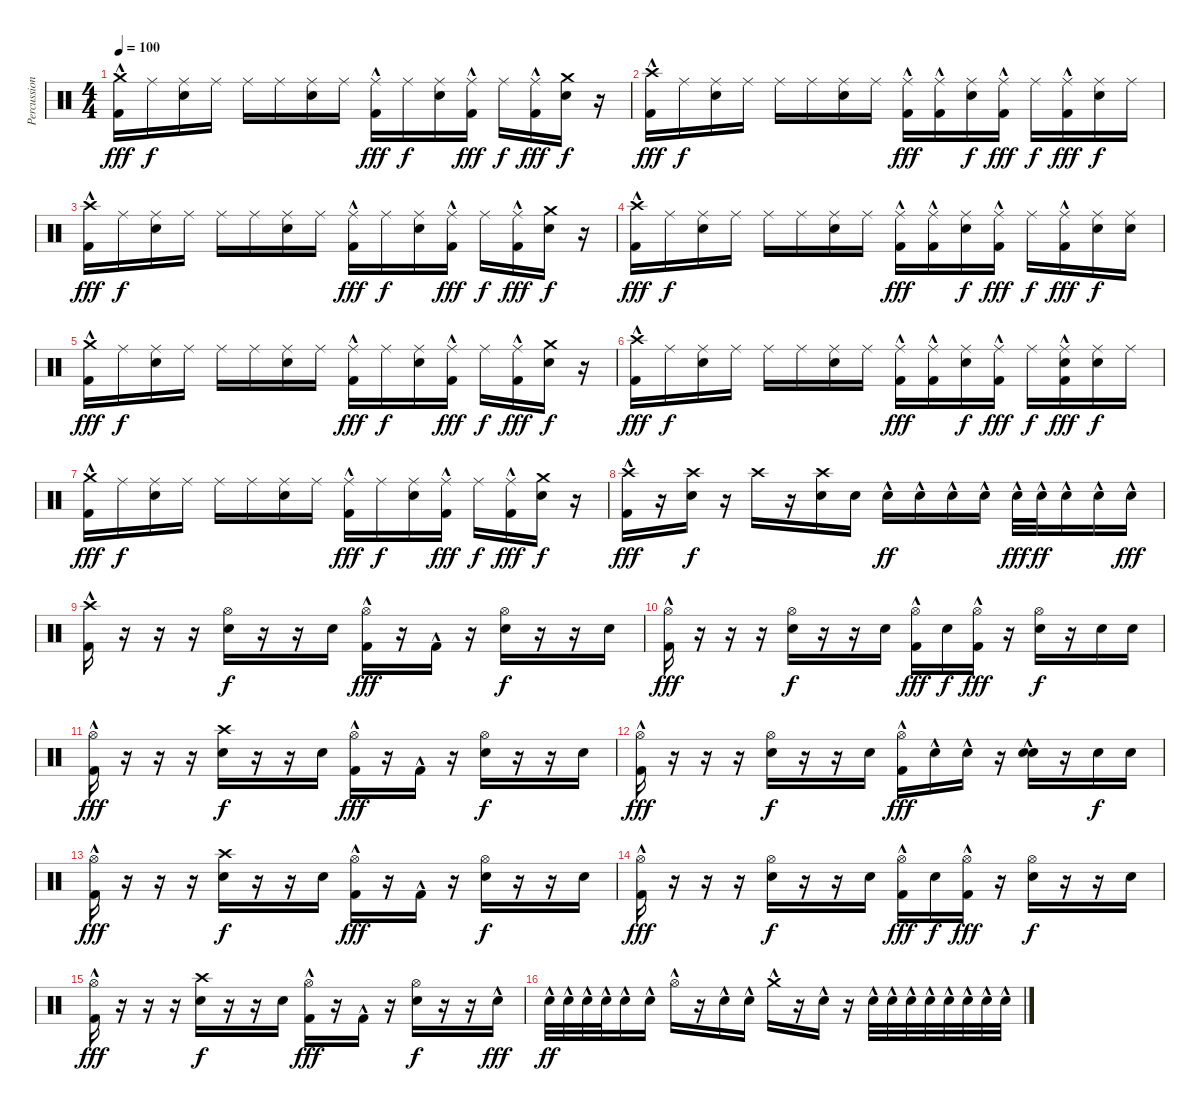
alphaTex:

\track ("Percussion" "Percussion") {instrument percussion}
\staff {score}
\articulation defaults
\ts (4 4)
\tempo 100
\clef neutral
\ks c
("Kick (hit) 2"{hac} "Crash medium (hit)").16{dy fff} "Ride (middle)".16{dy f} ("Electric Snare (hit)" "Ride (middle)").16 "Ride (middle)".16 "Ride (middle)".16 "Ride (middle)".16 ("Electric Snare (hit)" "Ride (middle)").16 "Ride (middle)".16 ("Kick (hit) 2"{hac} "Ride (middle)").16{dy fff} "Ride (middle)".16{dy f} ("Electric Snare (hit)" "Ride (middle)").16 ("Kick (hit) 2"{hac} "Ride (middle)").16{dy fff} "Ride (middle)".16{dy f} ("Kick (hit) 2"{hac} "Ride (middle)").16{dy fff} ("Electric Snare (hit)" "Crash medium (hit)").16{dy f} r.16 |
("Kick (hit) 2"{hac} "Crash high (hit)").16{dy fff} "Ride (middle)".16{dy f} ("Electric Snare (hit)" "Ride (middle)").16 "Ride (middle)".16 "Ride (middle)".16 "Ride (middle)".16 ("Electric Snare (hit)" "Ride (middle)").16 "Ride (middle)".16 ("Kick (hit) 2"{hac} "Ride (middle)").16{dy fff} ("Kick (hit) 2"{hac} "Ride (middle)").16 ("Electric Snare (hit)" "Ride (middle)").16{dy f} ("Kick (hit) 2"{hac} "Ride (middle)").16{dy fff} "Ride (middle)".16{dy f} ("Kick (hit) 2"{hac} "Ride (middle)").16{dy fff} ("Electric Snare (hit)" "Ride (middle)").16{dy f} "Ride (middle)".16 |
("Kick (hit) 2"{hac} "Crash high (hit)").16{dy fff} "Ride (middle)".16{dy f} ("Electric Snare (hit)" "Ride (middle)").16 "Ride (middle)".16 "Ride (middle)".16 "Ride (middle)".16 ("Electric Snare (hit)" "Ride (middle)").16 "Ride (middle)".16 ("Kick (hit) 2"{hac} "Ride (middle)").16{dy fff} "Ride (middle)".16{dy f} ("Electric Snare (hit)" "Ride (middle)").16 ("Kick (hit) 2"{hac} "Ride (middle)").16{dy fff} "Ride (middle)".16{dy f} ("Kick (hit) 2"{hac} "Ride (middle)").16{dy fff} ("Electric Snare (hit)" "Crash medium (hit)").16{dy f} r.16 |
("Kick (hit) 2"{hac} "Crash high (hit)").16{dy fff} "Ride (middle)".16{dy f} ("Electric Snare (hit)" "Ride (middle)").16 "Ride (middle)".16 "Ride (middle)".16 "Ride (middle)".16 ("Electric Snare (hit)" "Ride (middle)").16 "Ride (middle)".16 ("Kick (hit) 2"{hac} "Ride (middle)").16{dy fff} ("Kick (hit) 2"{hac} "Ride (middle)").16 ("Electric Snare (hit)" "Ride (middle)").16{dy f} ("Kick (hit) 2"{hac} "Ride (middle)").16{dy fff} "Ride (middle)".16{dy f} ("Kick (hit) 2"{hac} "Ride (middle)").16{dy fff} ("Electric Snare (hit)" "Ride (middle)").16{dy f} ("Electric Snare (hit)" "Ride (middle)").16 |
("Kick (hit) 2"{hac} "Crash medium (hit)").16{dy fff} "Ride (middle)".16{dy f} ("Electric Snare (hit)" "Ride (middle)").16 "Ride (middle)".16 "Ride (middle)".16 "Ride (middle)".16 ("Electric Snare (hit)" "Ride (middle)").16 "Ride (middle)".16 ("Kick (hit) 2"{hac} "Ride (middle)").16{dy fff} "Ride (middle)".16{dy f} ("Electric Snare (hit)" "Ride (middle)").16 ("Kick (hit) 2"{hac} "Ride (middle)").16{dy fff} "Ride (middle)".16{dy f} ("Kick (hit) 2"{hac} "Ride (middle)").16{dy fff} ("Electric Snare (hit)" "Crash medium (hit)").16{dy f} r.16 |
("Kick (hit) 2"{hac} "Crash high (hit)").16{dy fff} "Ride (middle)".16{dy f} ("Electric Snare (hit)" "Ride (middle)").16 "Ride (middle)".16 "Ride (middle)".16 "Ride (middle)".16 ("Electric Snare (hit)" "Ride (middle)").16 "Ride (middle)".16 ("Kick (hit) 2"{hac} "Ride (middle)").16{dy fff} ("Kick (hit) 2"{hac} "Ride (middle)").16 ("Electric Snare (hit)" "Ride (middle)").16{dy f} ("Kick (hit) 2"{hac} "Ride (middle)").16{dy fff} "Ride (middle)".16{dy f} ("Electric Snare (hit)" "Kick (hit) 2"{hac} "Ride (middle)").16{dy fff} ("Electric Snare (hit)" "Ride (middle)").16{dy f} "Ride (middle)".16 |
("Kick (hit) 2"{hac} "Crash medium (hit)").16{dy fff} "Ride (middle)".16{dy f} ("Electric Snare (hit)" "Ride (middle)").16 "Ride (middle)".16 "Ride (middle)".16 "Ride (middle)".16 ("Electric Snare (hit)" "Ride (middle)").16 "Ride (middle)".16 ("Kick (hit) 2"{hac} "Ride (middle)").16{dy fff} "Ride (middle)".16{dy f} ("Electric Snare (hit)" "Ride (middle)").16 ("Kick (hit) 2"{hac} "Ride (middle)").16{dy fff} "Ride (middle)".16{dy f} ("Kick (hit) 2"{hac} "Ride (middle)").16{dy fff} ("Electric Snare (hit)" "Crash medium (hit)").16{dy f} r.16 |
("Kick (hit) 2"{hac} "Crash high (hit)").16{dy fff} r.16 ("Electric Snare (hit)" "Crash high (hit)").16{dy f} r.16 "Crash high (hit)".16 r.16 ("Electric Snare (hit)" "Crash high (hit)").16 "Electric Snare (hit)".16 "Electric Snare (hit)"{hac}.16{dy ff} "Electric Snare (hit)"{hac}.16 "Electric Snare (hit)"{hac}.16 "Electric Snare (hit)"{hac}.16 "Electric Snare (hit)"{hac}.32{dy fff} "Electric Snare (hit)"{hac}.32{dy ff} "Electric Snare (hit)"{hac}.16 "Electric Snare (hit)"{hac}.16 "Electric Snare (hit)"{hac}.16{dy fff} |
("Kick (hit) 2"{hac} "Crash high (hit)").16 r.16 r.16 r.16 ("Electric Snare (hit)" "Hi-Hat (open)").16{dy f} r.16 r.16 "Electric Snare (hit)".16 ("Kick (hit) 2"{hac} "Hi-Hat (open)").16{dy fff} r.16 "Kick (hit) 2"{hac}.16 r.16 ("Electric Snare (hit)" "Hi-Hat (open)").16{dy f} r.16 r.16 "Electric Snare (hit)".16 |
("Kick (hit) 2"{hac} "Hi-Hat (open)").16{dy fff} r.16 r.16 r.16 ("Electric Snare (hit)" "Hi-Hat (open)").16{dy f} r.16 r.16 "Electric Snare (hit)".16 ("Kick (hit) 2"{hac} "Hi-Hat (open)").16{dy fff} "Electric Snare (hit)".16{dy f} ("Kick (hit) 2"{hac} "Hi-Hat (open)").16{dy fff} r.16 ("Electric Snare (hit)" "Hi-Hat (open)").16{dy f} r.16 "Electric Snare (hit)".16 "Electric Snare (hit)".16 |
("Kick (hit) 2"{hac} "Hi-Hat (open)").16{dy fff} r.16 r.16 r.16 ("Electric Snare (hit)" "Crash high (hit)").16{dy f} r.16 r.16 "Electric Snare (hit)".16 ("Kick (hit) 2"{hac} "Hi-Hat (open)").16{dy fff} r.16 "Kick (hit) 2"{hac}.16 r.16 ("Electric Snare (hit)" "Hi-Hat (open)").16{dy f} r.16 r.16 "Electric Snare (hit)".16 |
("Kick (hit) 2"{hac} "Hi-Hat (open)").16{dy fff} r.16 r.16 r.16 ("Electric Snare (hit)" "Hi-Hat (open)").16{dy f} r.16 r.16 "Electric Snare (hit)".16 ("Kick (hit) 2"{hac} "Hi-Hat (open)").16{dy fff} "Electric Snare (hit)"{hac}.16 "Electric Snare (hit)"{hac}.16 r.16 ("Electric Snare (hit)"{hac} "Electric Snare (hit)"{hac}).16{bd 60} r.16 "Electric Snare (hit)".16{dy f} "Electric Snare (hit)".16 |
("Kick (hit) 2"{hac} "Hi-Hat (open)").16{dy fff} r.16 r.16 r.16 ("Electric Snare (hit)" "Crash high (hit)").16{dy f} r.16 r.16 "Electric Snare (hit)".16 ("Kick (hit) 2"{hac} "Hi-Hat (open)").16{dy fff} r.16 "Kick (hit) 2"{hac}.16 r.16 ("Electric Snare (hit)" "Hi-Hat (open)").16{dy f} r.16 r.16 "Electric Snare (hit)".16 |
("Kick (hit) 2"{hac} "Hi-Hat (open)").16{dy fff} r.16 r.16 r.16 ("Electric Snare (hit)" "Hi-Hat (open)").16{dy f} r.16 r.16 "Electric Snare (hit)".16 ("Kick (hit) 2"{hac} "Hi-Hat (open)").16{dy fff} "Electric Snare (hit)".16{dy f} ("Kick (hit) 2"{hac} "Hi-Hat (open)").16{dy fff} r.16 ("Electric Snare (hit)" "Hi-Hat (open)").16{dy f} r.16 r.16 "Electric Snare (hit)".16 |
("Kick (hit) 2"{hac} "Hi-Hat (open)").16{dy fff} r.16 r.16 r.16 ("Electric Snare (hit)" "Crash high (hit)").16{dy f} r.16 r.16 "Electric Snare (hit)".16 ("Kick (hit) 2"{hac} "Hi-Hat (open)").16{dy fff} r.16 "Kick (hit) 2"{hac}.16 r.16 ("Electric Snare (hit)" "Hi-Hat (open)").16{dy f} r.16 r.16 "Electric Snare (hit)"{hac}.16{dy fff} |
"Electric Snare (hit)"{hac}.32{dy ff} "Electric Snare (hit)"{hac}.32 "Electric Snare (hit)"{hac}.32 "Electric Snare (hit)"{hac}.32 "Electric Snare (hit)"{hac}.16 "Electric Snare (hit)"{hac}.16 "Hi-Hat (open)"{hac}.16 r.16 "Electric Snare (hit)"{hac}.16 "Electric Snare (hit)"{hac}.16 "Crash medium (hit)"{hac}.16 r.16 "Electric Snare (hit)"{hac}.16 r.16 "Electric Snare (hit)"{hac}.32 "Electric Snare (hit)"{hac}.32 "Electric Snare (hit)"{hac}.32 "Electric Snare (hit)"{hac}.32 "Electric Snare (hit)"{hac}.32 "Electric Snare (hit)"{hac}.32 "Electric Snare (hit)"{hac}.32 "Electric Snare (hit)"{hac}.32
